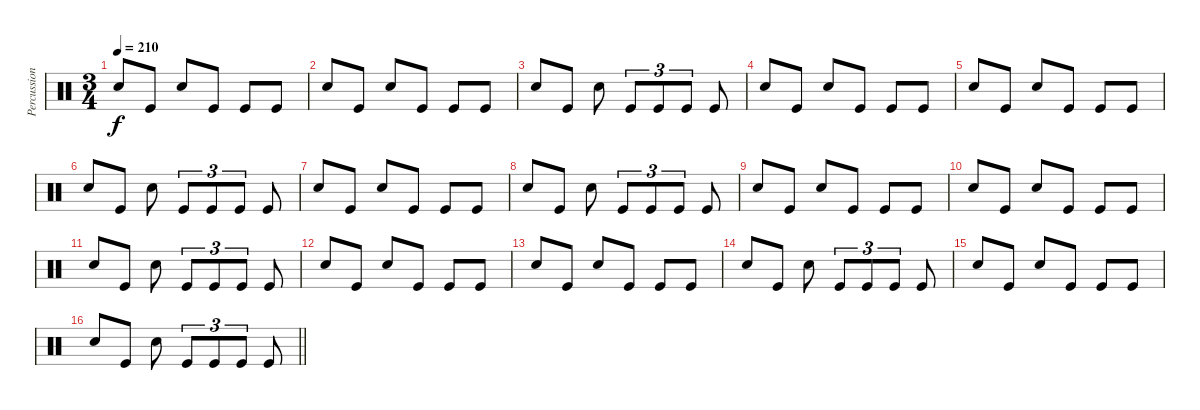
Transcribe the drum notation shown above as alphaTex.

\track ("Percussion" "Percussion") {instrument percussion}
\staff
\articulation defaults
\ts (3 4)
\tempo 210
\clef neutral
\ks c "Snare (hit) 2".8{dy f} "Kick (hit)".8 "Snare (hit) 2".8 "Kick (hit)".8 "Kick (hit)".8 "Kick (hit)".8
|
"Snare (hit) 2".8 "Kick (hit)".8 "Snare (hit) 2".8 "Kick (hit)".8 "Kick (hit)".8 "Kick (hit)".8 |
"Snare (hit) 2".8 "Kick (hit)".8 "Snare (hit) 2".8 "Kick (hit)".8{tu (3 2)} "Kick (hit)".8{tu (3 2)} "Kick (hit)".8{tu (3 2)} "Kick (hit)".8 |
"Snare (hit) 2".8 "Kick (hit)".8 "Snare (hit) 2".8 "Kick (hit)".8 "Kick (hit)".8 "Kick (hit)".8 |
"Snare (hit) 2".8 "Kick (hit)".8 "Snare (hit) 2".8 "Kick (hit)".8 "Kick (hit)".8 "Kick (hit)".8 |
"Snare (hit) 2".8 "Kick (hit)".8 "Snare (hit) 2".8 "Kick (hit)".8{tu (3 2)} "Kick (hit)".8{tu (3 2)} "Kick (hit)".8{tu (3 2)} "Kick (hit)".8 |
"Snare (hit) 2".8 "Kick (hit)".8 "Snare (hit) 2".8 "Kick (hit)".8 "Kick (hit)".8 "Kick (hit)".8 |
"Snare (hit) 2".8 "Kick (hit)".8 "Snare (hit) 2".8 "Kick (hit)".8{tu (3 2)} "Kick (hit)".8{tu (3 2)} "Kick (hit)".8{tu (3 2)} "Kick (hit)".8 |
"Snare (hit) 2".8 "Kick (hit)".8 "Snare (hit) 2".8 "Kick (hit)".8 "Kick (hit)".8 "Kick (hit)".8 |
"Snare (hit) 2".8 "Kick (hit)".8 "Snare (hit) 2".8 "Kick (hit)".8 "Kick (hit)".8 "Kick (hit)".8 |
"Snare (hit) 2".8 "Kick (hit)".8 "Snare (hit) 2".8 "Kick (hit)".8{tu (3 2)} "Kick (hit)".8{tu (3 2)} "Kick (hit)".8{tu (3 2)} "Kick (hit)".8 |
"Snare (hit) 2".8 "Kick (hit)".8 "Snare (hit) 2".8 "Kick (hit)".8 "Kick (hit)".8 "Kick (hit)".8 |
"Snare (hit) 2".8 "Kick (hit)".8 "Snare (hit) 2".8 "Kick (hit)".8 "Kick (hit)".8 "Kick (hit)".8 |
"Snare (hit) 2".8 "Kick (hit)".8 "Snare (hit) 2".8 "Kick (hit)".8{tu (3 2)} "Kick (hit)".8{tu (3 2)} "Kick (hit)".8{tu (3 2)} "Kick (hit)".8 |
"Snare (hit) 2".8 "Kick (hit)".8 "Snare (hit) 2".8 "Kick (hit)".8 "Kick (hit)".8 "Kick (hit)".8 |
\barLineRight lightlight "Snare (hit) 2".8 "Kick (hit)".8 "Snare (hit) 2".8 "Kick (hit)".8{tu (3 2)} "Kick (hit)".8{tu (3 2)} "Kick (hit)".8{tu (3 2)} "Kick (hit)".8
